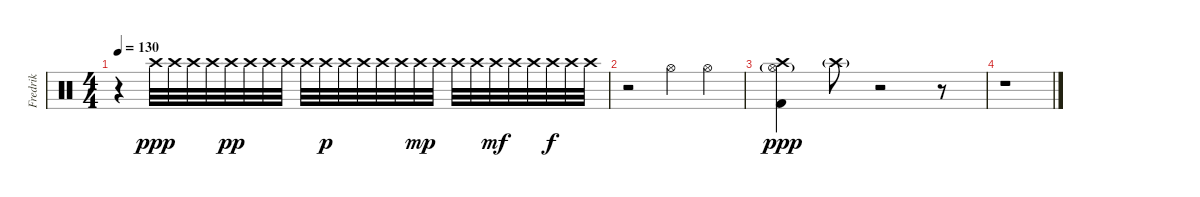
\track ("Fredrik" "Fredrik") {instrument percussion}
\staff {score}
\articulation defaults
\ts (4 4)
\tempo 130
\clef neutral
\ks c
r.4{dy f} "Crash high (hit)".32{dy ppp} "Crash high (hit)".32 "Crash high (hit)".32 "Crash high (hit)".32 "Crash high (hit)".32{dy pp} "Crash high (hit)".32 "Crash high (hit)".32 "Crash high (hit)".32 "Crash high (hit)".32 "Crash high (hit)".32{dy p} "Crash high (hit)".32 "Crash high (hit)".32 "Crash high (hit)".32 "Crash high (hit)".32 "Crash high (hit)".32{dy mp} "Crash high (hit)".32 "Crash high (hit)".32 "Crash high (hit)".32 "Crash high (hit)".32{dy mf} "Crash high (hit)".32 "Crash high (hit)".32 "Crash high (hit)".32{dy f} "Crash high (hit)".32 "Crash high (hit)".32 |
r.2 "Hi-Hat (open)".4 "Hi-Hat (open)".4 |
("Crash high (hit)" "Hi-Hat (open)"{g} "Kick (hit) 2").4{dy ppp} "Crash high (hit)"{g}.8 r.2 r.8 |
r.1
